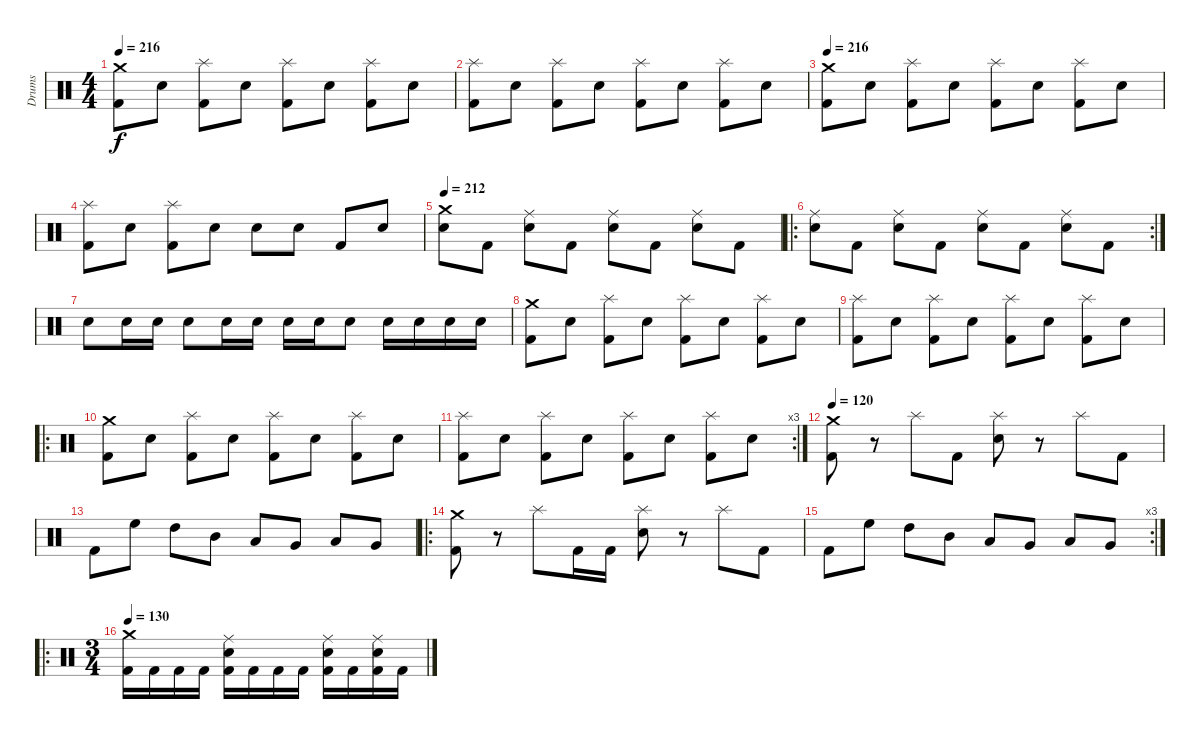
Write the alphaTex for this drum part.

\track ("Drums" "Drums") {instrument percussion}
\staff {score}
\articulation defaults
\ts (4 4)
\tempo 216
\clef neutral
\ks c
("Crash medium (hit)" "Kick (hit) 2").8{dy f} "Snare (hit) 2".8 ("Splash (hit)" "Kick (hit) 2").8 "Snare (hit) 2".8 ("Splash (hit)" "Kick (hit) 2").8 "Snare (hit) 2".8 ("Splash (hit)" "Kick (hit) 2").8 "Snare (hit) 2".8 |
("Splash (hit)" "Kick (hit) 2").8 "Snare (hit) 2".8 ("Splash (hit)" "Kick (hit) 2").8 "Snare (hit) 2".8 ("Splash (hit)" "Kick (hit) 2").8 "Snare (hit) 2".8 ("Splash (hit)" "Kick (hit) 2").8 "Snare (hit) 2".8 |
\tempo 216
("Crash medium (hit)" "Kick (hit) 2").8 "Snare (hit) 2".8 ("Splash (hit)" "Kick (hit) 2").8 "Snare (hit) 2".8 ("Splash (hit)" "Kick (hit) 2").8 "Snare (hit) 2".8 ("Splash (hit)" "Kick (hit) 2").8 "Snare (hit) 2".8 |
("Splash (hit)" "Kick (hit) 2").8 "Snare (hit) 2".8 ("Splash (hit)" "Kick (hit) 2").8 "Snare (hit) 2".8 "Snare (hit) 2".8 "Snare (hit) 2".8 "Kick (hit) 2".8 "Snare (hit) 2".8 |
\tempo 212
("Crash medium (hit)" "Snare (hit) 2").8 "Kick (hit) 2".8 ("Ride (middle)" "Snare (hit) 2").8 "Kick (hit) 2".8 ("Ride (middle)" "Snare (hit) 2").8 "Kick (hit) 2".8 ("Ride (middle)" "Snare (hit) 2").8 "Kick (hit) 2".8 |
\ro
\rc 2
("Ride (middle)" "Snare (hit) 2").8 "Kick (hit) 2".8 ("Ride (middle)" "Snare (hit) 2").8 "Kick (hit) 2".8 ("Ride (middle)" "Snare (hit) 2").8 "Kick (hit) 2".8 ("Ride (middle)" "Snare (hit) 2").8 "Kick (hit) 2".8 |
"Snare (hit) 2".8 "Snare (hit) 2".16 "Snare (hit) 2".16 "Snare (hit) 2".8 "Snare (hit) 2".16 "Snare (hit) 2".16 "Snare (hit) 2".16 "Snare (hit) 2".16 "Snare (hit) 2".8 "Snare (hit) 2".16 "Snare (hit) 2".16 "Snare (hit) 2".16 "Snare (hit) 2".16 |
("Crash medium (hit)" "Kick (hit) 2").8 "Snare (hit) 2".8 ("Splash (hit)" "Kick (hit) 2").8 "Snare (hit) 2".8 ("Splash (hit)" "Kick (hit) 2").8 "Snare (hit) 2".8 ("Splash (hit)" "Kick (hit) 2").8 "Snare (hit) 2".8 |
("Splash (hit)" "Kick (hit) 2").8 "Snare (hit) 2".8 ("Splash (hit)" "Kick (hit) 2").8 "Snare (hit) 2".8 ("Splash (hit)" "Kick (hit) 2").8 "Snare (hit) 2".8 ("Splash (hit)" "Kick (hit) 2").8 "Snare (hit) 2".8 |
\ro
("Crash medium (hit)" "Kick (hit) 2").8 "Snare (hit) 2".8 ("Splash (hit)" "Kick (hit) 2").8 "Snare (hit) 2".8 ("Splash (hit)" "Kick (hit) 2").8 "Snare (hit) 2".8 ("Splash (hit)" "Kick (hit) 2").8 "Snare (hit) 2".8 |
\rc 3
("Splash (hit)" "Kick (hit) 2").8 "Snare (hit) 2".8 ("Splash (hit)" "Kick (hit) 2").8 "Snare (hit) 2".8 ("Splash (hit)" "Kick (hit) 2").8 "Snare (hit) 2".8 ("Splash (hit)" "Kick (hit) 2").8 "Snare (hit) 2".8 |
\tempo 120
("Crash medium (hit)" "Kick (hit) 2").8 r.8 "Splash (hit)".8 "Kick (hit) 2".8 ("Splash (hit)" "Snare (hit) 2").8 r.8 "Splash (hit)".8 "Kick (hit) 2".8 |
"Kick (hit) 2".8 "High Floor Tom (hit)".8 "High Tom (hit)".8 "Mid Tom (hit)".8 "Low Tom (hit)".8 "Very Low Tom (hit)".8 "Low Tom (hit)".8 "Very Low Tom (hit)".8 |
\ro
("Crash medium (hit)" "Kick (hit) 2").8 r.8 "Splash (hit)".8 "Kick (hit) 2".16 "Kick (hit) 2".16 ("Splash (hit)" "Snare (hit) 2").8 r.8 "Splash (hit)".8 "Kick (hit) 2".8 |
\rc 3 "Kick (hit) 2".8 "High Floor Tom (hit)".8 "High Tom (hit)".8 "Mid Tom (hit)".8 "Low Tom (hit)".8 "Very Low Tom (hit)".8 "Low Tom (hit)".8 "Very Low Tom (hit)".8
|
\ro
\ts (3 4)
\tempo 130
("Crash medium (hit)" "Kick (hit) 2").16 "Kick (hit) 2".16 "Kick (hit) 2".16 "Kick (hit) 2".16 ("Ride (middle)" "Snare (hit) 2" "Kick (hit) 2").16 "Kick (hit) 2".16 "Kick (hit) 2".16 "Kick (hit) 2".16 ("Ride (middle)" "Snare (hit) 2" "Kick (hit) 2").16 "Kick (hit) 2".16 ("Ride (middle)" "Snare (hit) 2" "Kick (hit) 2").16 "Kick (hit) 2".16
